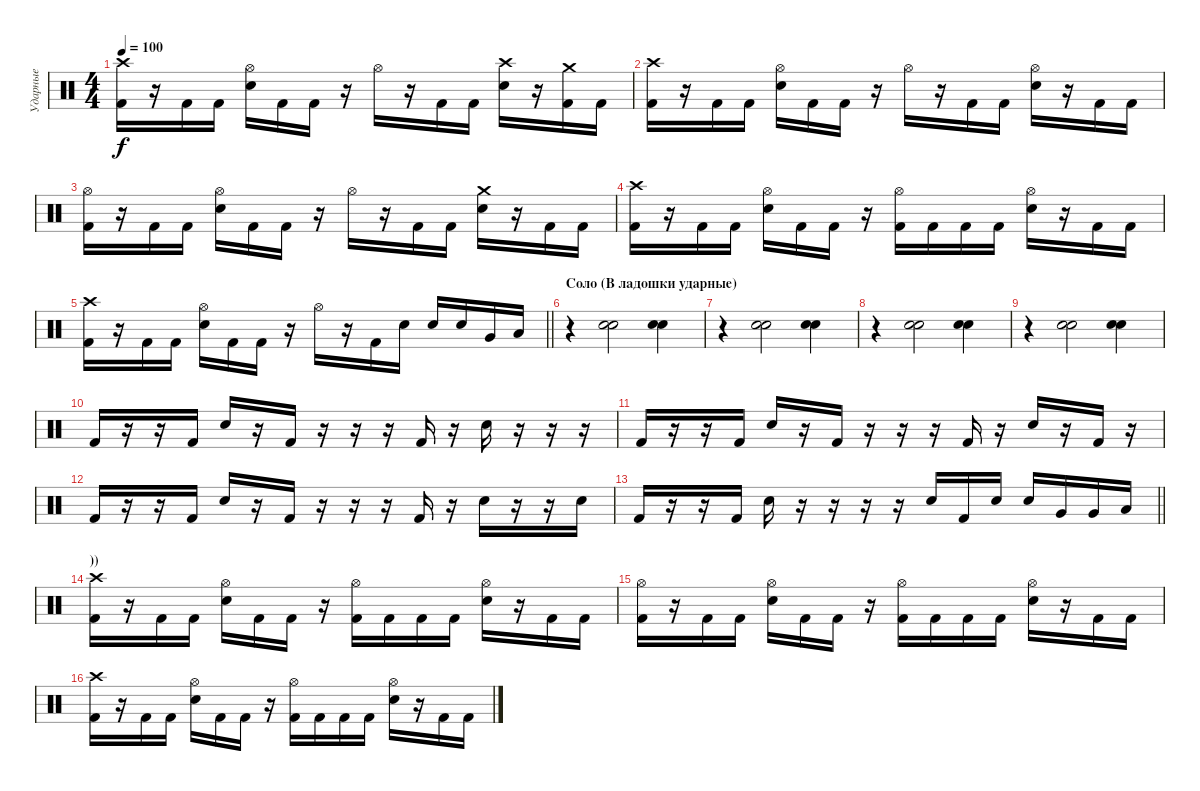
\track ("Ударные" "Ударные") {instrument percussion}
\staff {score}
\articulation defaults
\ts (4 4)
\tempo 100
\clef neutral
\ks c
("Crash high (hit)" "Kick (hit) 2").16{dy f} r.16 "Kick (hit) 2".16 "Kick (hit) 2".16 ("Hi-Hat (open)" "Snare (hit) 2").16 "Kick (hit) 2".16 "Kick (hit) 2".16 r.16 "Hi-Hat (open)".16 r.16 "Kick (hit) 2".16 "Kick (hit) 2".16 ("Crash high (hit)" "Snare (hit) 2").16 r.16 ("Crash medium (hit)" "Kick (hit) 2").16 "Kick (hit) 2".16 |
("Crash high (hit)" "Kick (hit) 2").16 r.16 "Kick (hit) 2".16 "Kick (hit) 2".16 ("Hi-Hat (open)" "Snare (hit) 2").16 "Kick (hit) 2".16 "Kick (hit) 2".16 r.16 "Hi-Hat (open)".16 r.16 "Kick (hit) 2".16 "Kick (hit) 2".16 ("Hi-Hat (open)" "Snare (hit) 2").16 r.16 "Kick (hit) 2".16 "Kick (hit) 2".16 |
("Hi-Hat (open)" "Kick (hit) 2").16 r.16 "Kick (hit) 2".16 "Kick (hit) 2".16 ("Hi-Hat (open)" "Snare (hit) 2").16 "Kick (hit) 2".16 "Kick (hit) 2".16 r.16 "Hi-Hat (open)".16 r.16 "Kick (hit) 2".16 "Kick (hit) 2".16 ("Crash medium (hit)" "Snare (hit) 2").16 r.16 "Kick (hit) 2".16 "Kick (hit) 2".16 |
("Crash high (hit)" "Kick (hit) 2").16 r.16 "Kick (hit) 2".16 "Kick (hit) 2".16 ("Hi-Hat (open)" "Snare (hit) 2").16 "Kick (hit) 2".16 "Kick (hit) 2".16 r.16 ("Hi-Hat (open)" "Kick (hit) 2").16 "Kick (hit) 2".16 "Kick (hit) 2".16 "Kick (hit) 2".16 ("Hi-Hat (open)" "Snare (hit) 2").16 r.16 "Kick (hit) 2".16 "Kick (hit) 2".16 |
\barLineRight lightlight
("Crash high (hit)" "Kick (hit) 2").16 r.16 "Kick (hit) 2".16 "Kick (hit) 2".16 ("Hi-Hat (open)" "Snare (hit) 2").16 "Kick (hit) 2".16 "Kick (hit) 2".16 r.16 "Hi-Hat (open)".16 r.16 "Kick (hit) 2".16 "Snare (hit) 2".16 "Snare (hit) 2".16 "Snare (hit) 2".16 "Very Low Tom (hit)".16 "Low Tom (hit)".16 |
\section ("" "Соло (В ладошки ударные)")
r.4 ("Hand Clap (hit)" "Hand Clap (hit)").2 ("Hand Clap (hit)" "Hand Clap (hit)").4 |
r.4 ("Hand Clap (hit)" "Hand Clap (hit)").2 ("Hand Clap (hit)" "Hand Clap (hit)").4 |
r.4 ("Hand Clap (hit)" "Hand Clap (hit)").2 ("Hand Clap (hit)" "Hand Clap (hit)").4 |
r.4 ("Hand Clap (hit)" "Hand Clap (hit)").2 ("Hand Clap (hit)" "Hand Clap (hit)").4 |
"Kick (hit) 2".16 r.16 r.16 "Kick (hit) 2".16 "Snare (hit) 2".16 r.16 "Kick (hit) 2".16 r.16 r.16 r.16 "Kick (hit) 2".16 r.16 "Snare (hit) 2".16 r.16 r.16 r.16 |
"Kick (hit) 2".16 r.16 r.16 "Kick (hit) 2".16 "Snare (hit) 2".16 r.16 "Kick (hit) 2".16 r.16 r.16 r.16 "Kick (hit) 2".16 r.16 "Snare (hit) 2".16 r.16 "Kick (hit) 2".16 r.16 |
"Kick (hit) 2".16 r.16 r.16 "Kick (hit) 2".16 "Snare (hit) 2".16 r.16 "Kick (hit) 2".16 r.16 r.16 r.16 "Kick (hit) 2".16 r.16 "Snare (hit) 2".16 r.16 r.16 "Snare (hit) 2".16 |
\barLineRight lightlight "Kick (hit) 2".16
r.16 r.16 "Kick (hit) 2".16 "Snare (hit) 2".16 r.16 r.16 r.16 r.16 "Snare (hit) 2".16 "Kick (hit) 2".16 "Snare (hit) 2".16 "Snare (hit) 2".16 "Very Low Tom (hit)".16 "Very Low Tom (hit)".16 "Low Tom (hit)".16 |
\section ("" "))")
("Crash high (hit)" "Kick (hit) 2").16 r.16 "Kick (hit) 2".16 "Kick (hit) 2".16 ("Hi-Hat (open)" "Snare (hit) 2").16 "Kick (hit) 2".16 "Kick (hit) 2".16 r.16 ("Hi-Hat (open)" "Kick (hit) 2").16 "Kick (hit) 2".16 "Kick (hit) 2".16 "Kick (hit) 2".16 ("Hi-Hat (open)" "Snare (hit) 2").16 r.16 "Kick (hit) 2".16 "Kick (hit) 2".16 |
("Hi-Hat (open)" "Kick (hit) 2").16 r.16 "Kick (hit) 2".16 "Kick (hit) 2".16 ("Hi-Hat (open)" "Snare (hit) 2").16 "Kick (hit) 2".16 "Kick (hit) 2".16 r.16 ("Hi-Hat (open)" "Kick (hit) 2").16 "Kick (hit) 2".16 "Kick (hit) 2".16 "Kick (hit) 2".16 ("Hi-Hat (open)" "Snare (hit) 2").16 r.16 "Kick (hit) 2".16 "Kick (hit) 2".16 |
("Crash high (hit)" "Kick (hit) 2").16 r.16 "Kick (hit) 2".16 "Kick (hit) 2".16 ("Hi-Hat (open)" "Snare (hit) 2").16 "Kick (hit) 2".16 "Kick (hit) 2".16 r.16 ("Hi-Hat (open)" "Kick (hit) 2").16 "Kick (hit) 2".16 "Kick (hit) 2".16 "Kick (hit) 2".16 ("Hi-Hat (open)" "Snare (hit) 2").16 r.16 "Kick (hit) 2".16 "Kick (hit) 2".16
